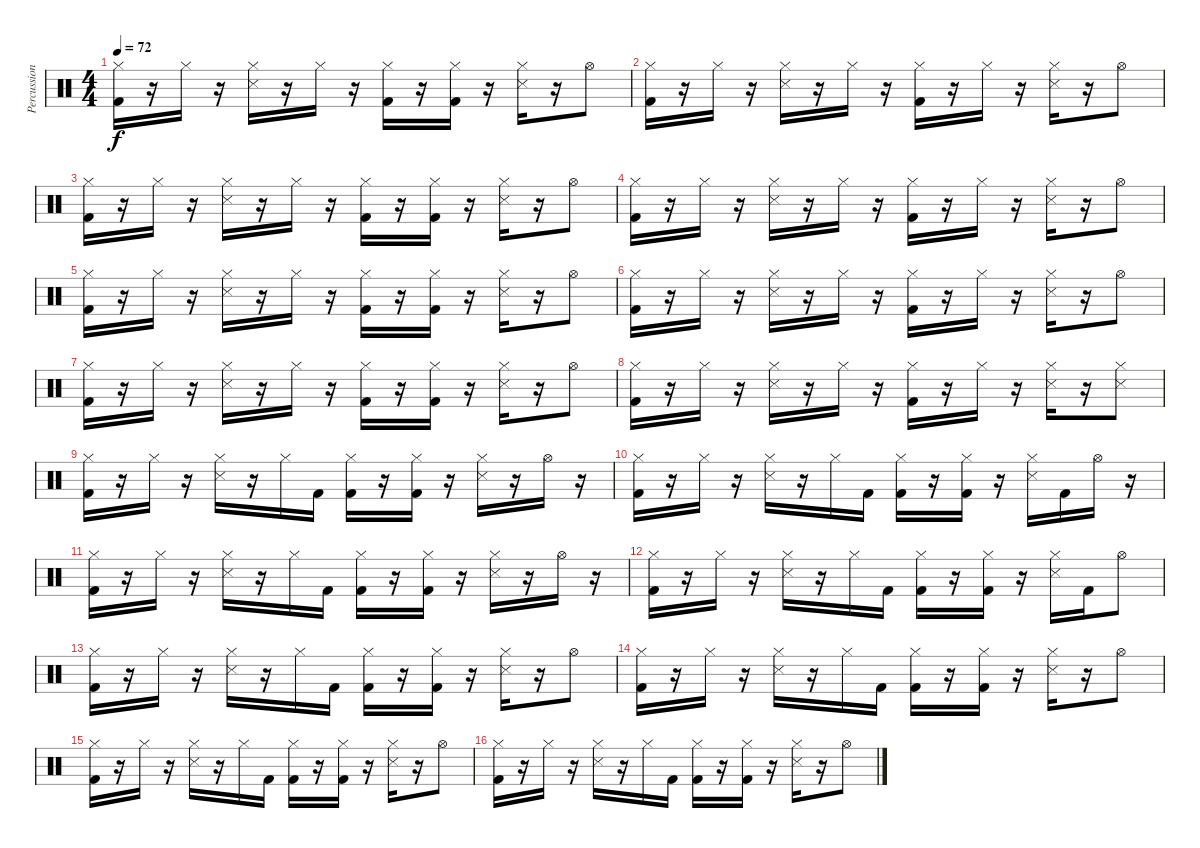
\track ("Percussions" "Percussion") {instrument percussion}
\staff {score}
\articulation defaults
\ts (4 4)
\tempo 72
\clef neutral
\ks c
("Kick (hit) 2" "Hi-Hat (closed)").16{dy f} r.16 "Hi-Hat (closed)".16 r.16 ("Snare (side stick) 3" "Hi-Hat (closed)").16 r.16 "Hi-Hat (closed)".16 r.16 ("Kick (hit) 2" "Hi-Hat (closed)").16 r.16 ("Kick (hit) 2" "Hi-Hat (closed)").16 r.16 ("Snare (side stick) 3" "Hi-Hat (closed)").16 r.16 "Hi-Hat (open)".8 |
("Kick (hit) 2" "Hi-Hat (closed)").16 r.16 "Hi-Hat (closed)".16 r.16 ("Snare (side stick) 3" "Hi-Hat (closed)").16 r.16 "Hi-Hat (closed)".16 r.16 ("Kick (hit) 2" "Hi-Hat (closed)").16 r.16 "Hi-Hat (closed)".16 r.16 ("Snare (side stick) 3" "Hi-Hat (closed)").16 r.16 "Hi-Hat (open)".8 |
("Kick (hit) 2" "Hi-Hat (closed)").16 r.16 "Hi-Hat (closed)".16 r.16 ("Snare (side stick) 3" "Hi-Hat (closed)").16 r.16 "Hi-Hat (closed)".16 r.16 ("Kick (hit) 2" "Hi-Hat (closed)").16 r.16 ("Kick (hit) 2" "Hi-Hat (closed)").16 r.16 ("Snare (side stick) 3" "Hi-Hat (closed)").16 r.16 "Hi-Hat (open)".8 |
("Kick (hit) 2" "Hi-Hat (closed)").16 r.16 "Hi-Hat (closed)".16 r.16 ("Snare (side stick) 3" "Hi-Hat (closed)").16 r.16 "Hi-Hat (closed)".16 r.16 ("Kick (hit) 2" "Hi-Hat (closed)").16 r.16 "Hi-Hat (closed)".16 r.16 ("Snare (side stick) 3" "Hi-Hat (closed)").16 r.16 "Hi-Hat (open)".8 |
("Kick (hit) 2" "Hi-Hat (closed)").16 r.16 "Hi-Hat (closed)".16 r.16 ("Snare (side stick) 3" "Hi-Hat (closed)").16 r.16 "Hi-Hat (closed)".16 r.16 ("Kick (hit) 2" "Hi-Hat (closed)").16 r.16 ("Kick (hit) 2" "Hi-Hat (closed)").16 r.16 ("Snare (side stick) 3" "Hi-Hat (closed)").16 r.16 "Hi-Hat (open)".8 |
("Kick (hit) 2" "Hi-Hat (closed)").16 r.16 "Hi-Hat (closed)".16 r.16 ("Snare (side stick) 3" "Hi-Hat (closed)").16 r.16 "Hi-Hat (closed)".16 r.16 ("Kick (hit) 2" "Hi-Hat (closed)").16 r.16 "Hi-Hat (closed)".16 r.16 ("Snare (side stick) 3" "Hi-Hat (closed)").16 r.16 "Hi-Hat (open)".8 |
("Kick (hit) 2" "Hi-Hat (closed)").16 r.16 "Hi-Hat (closed)".16 r.16 ("Snare (side stick) 3" "Hi-Hat (closed)").16 r.16 "Hi-Hat (closed)".16 r.16 ("Kick (hit) 2" "Hi-Hat (closed)").16 r.16 ("Kick (hit) 2" "Hi-Hat (closed)").16 r.16 ("Snare (side stick) 3" "Hi-Hat (closed)").16 r.16 "Hi-Hat (open)".8 |
("Kick (hit) 2" "Hi-Hat (closed)").16 r.16 "Hi-Hat (closed)".16 r.16 ("Snare (side stick) 3" "Hi-Hat (closed)").16 r.16 "Hi-Hat (closed)".16 r.16 ("Kick (hit) 2" "Hi-Hat (closed)").16 r.16 "Hi-Hat (closed)".16 r.16 ("Snare (side stick) 3" "Hi-Hat (closed)").16 r.16 ("Snare (side stick) 3" "Hi-Hat (closed)").8 |
("Kick (hit) 2" "Hi-Hat (closed)").16 r.16 "Hi-Hat (closed)".16 r.16 ("Snare (side stick) 3" "Hi-Hat (closed)").16 r.16 "Hi-Hat (closed)".16 "Kick (hit) 2".16 ("Kick (hit) 2" "Hi-Hat (closed)").16 r.16 ("Kick (hit) 2" "Hi-Hat (closed)").16 r.16 ("Snare (side stick) 3" "Hi-Hat (closed)").16 r.16 "Hi-Hat (open)".16 r.16 |
("Kick (hit) 2" "Hi-Hat (closed)").16 r.16 "Hi-Hat (closed)".16 r.16 ("Snare (side stick) 3" "Hi-Hat (closed)").16 r.16 "Hi-Hat (closed)".16 "Kick (hit) 2".16 ("Kick (hit) 2" "Hi-Hat (closed)").16 r.16 ("Kick (hit) 2" "Hi-Hat (closed)").16 r.16 ("Snare (side stick) 3" "Hi-Hat (closed)").16 "Kick (hit) 2".16 "Hi-Hat (open)".16 r.16 |
("Kick (hit) 2" "Hi-Hat (closed)").16 r.16 "Hi-Hat (closed)".16 r.16 ("Snare (side stick) 3" "Hi-Hat (closed)").16 r.16 "Hi-Hat (closed)".16 "Kick (hit) 2".16 ("Kick (hit) 2" "Hi-Hat (closed)").16 r.16 ("Kick (hit) 2" "Hi-Hat (closed)").16 r.16 ("Snare (side stick) 3" "Hi-Hat (closed)").16 r.16 "Hi-Hat (open)".16 r.16 |
("Kick (hit) 2" "Hi-Hat (closed)").16 r.16 "Hi-Hat (closed)".16 r.16 ("Snare (side stick) 3" "Hi-Hat (closed)").16 r.16 "Hi-Hat (closed)".16 "Kick (hit) 2".16 ("Kick (hit) 2" "Hi-Hat (closed)").16 r.16 ("Kick (hit) 2" "Hi-Hat (closed)").16 r.16 ("Snare (side stick) 3" "Hi-Hat (closed)").16 "Kick (hit) 2".16 "Hi-Hat (open)".8 |
("Kick (hit) 2" "Hi-Hat (closed)").16 r.16 "Hi-Hat (closed)".16 r.16 ("Snare (side stick) 3" "Hi-Hat (closed)").16 r.16 "Hi-Hat (closed)".16 "Kick (hit) 2".16 ("Kick (hit) 2" "Hi-Hat (closed)").16 r.16 ("Kick (hit) 2" "Hi-Hat (closed)").16 r.16 ("Snare (side stick) 3" "Hi-Hat (closed)").16 r.16 "Hi-Hat (open)".8 |
("Kick (hit) 2" "Hi-Hat (closed)").16 r.16 "Hi-Hat (closed)".16 r.16 ("Snare (side stick) 3" "Hi-Hat (closed)").16 r.16 "Hi-Hat (closed)".16 "Kick (hit) 2".16 ("Kick (hit) 2" "Hi-Hat (closed)").16 r.16 ("Kick (hit) 2" "Hi-Hat (closed)").16 r.16 ("Snare (side stick) 3" "Hi-Hat (closed)").16 r.16 "Hi-Hat (open)".8 |
("Kick (hit) 2" "Hi-Hat (closed)").16 r.16 "Hi-Hat (closed)".16 r.16 ("Snare (side stick) 3" "Hi-Hat (closed)").16 r.16 "Hi-Hat (closed)".16 "Kick (hit) 2".16 ("Kick (hit) 2" "Hi-Hat (closed)").16 r.16 ("Kick (hit) 2" "Hi-Hat (closed)").16 r.16 ("Snare (side stick) 3" "Hi-Hat (closed)").16 r.16 "Hi-Hat (open)".8 |
("Kick (hit) 2" "Hi-Hat (closed)").16 r.16 "Hi-Hat (closed)".16 r.16 ("Snare (side stick) 3" "Hi-Hat (closed)").16 r.16 "Hi-Hat (closed)".16 "Kick (hit) 2".16 ("Kick (hit) 2" "Hi-Hat (closed)").16 r.16 ("Kick (hit) 2" "Hi-Hat (closed)").16 r.16 ("Snare (side stick) 3" "Hi-Hat (closed)").16 r.16 "Hi-Hat (open)".8
